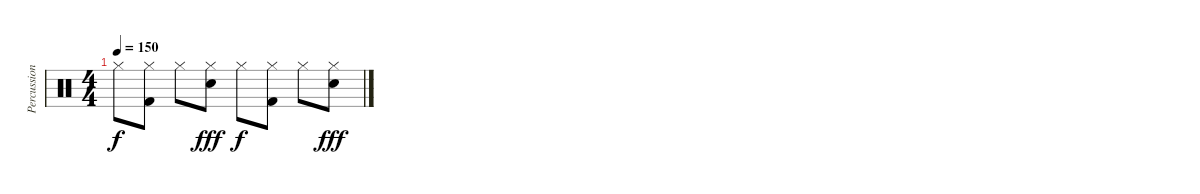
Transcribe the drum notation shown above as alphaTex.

\track ("Percussion" "Percussion") {instrument percussion}
\staff {score}
\articulation defaults
\ts (4 4)
\tempo 150
\clef neutral
\ks c "Hi-Hat (closed)".8{dy f}
("Hi-Hat (closed)" "Kick (hit) 2").8 "Hi-Hat (closed)".8 ("Hi-Hat (closed)" "Electric Snare (hit)").8{dy fff} "Hi-Hat (closed)".8{dy f} ("Hi-Hat (closed)" "Kick (hit) 2").8 "Hi-Hat (closed)".8 ("Hi-Hat (closed)" "Electric Snare (hit)").8{dy fff}
